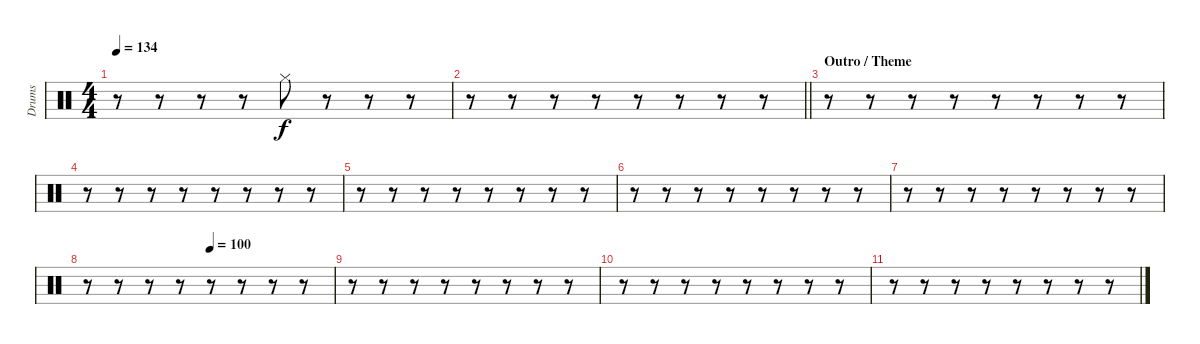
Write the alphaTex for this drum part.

\track ("Drums" "Drums") {instrument percussion}
\staff {score}
\articulation defaults
\ts (4 4)
\tempo 134
\clef neutral
\ks aminor
r.8{dy f} r.8 r.8 r.8 "Hi-Hat (closed)".8 r.8 r.8 r.8 |
\barLineRight lightlight
r.8 r.8 r.8 r.8 r.8 r.8 r.8 r.8 |
\section ("" "Outro / Theme")
r.8 r.8 r.8 r.8 r.8 r.8 r.8 r.8 |
r.8 r.8 r.8 r.8 r.8 r.8 r.8 r.8 |
r.8 r.8 r.8 r.8 r.8 r.8 r.8 r.8 |
r.8 r.8 r.8 r.8 r.8 r.8 r.8 r.8 |
r.8 r.8 r.8 r.8 r.8 r.8 r.8 r.8 |
\tempo (100 0.5)
r.8 r.8 r.8 r.8 r.8 r.8 r.8 r.8 |
r.8 r.8 r.8 r.8 r.8 r.8 r.8 r.8 |
r.8 r.8 r.8 r.8 r.8 r.8 r.8 r.8 |
r.8 r.8 r.8 r.8 r.8 r.8 r.8 r.8
